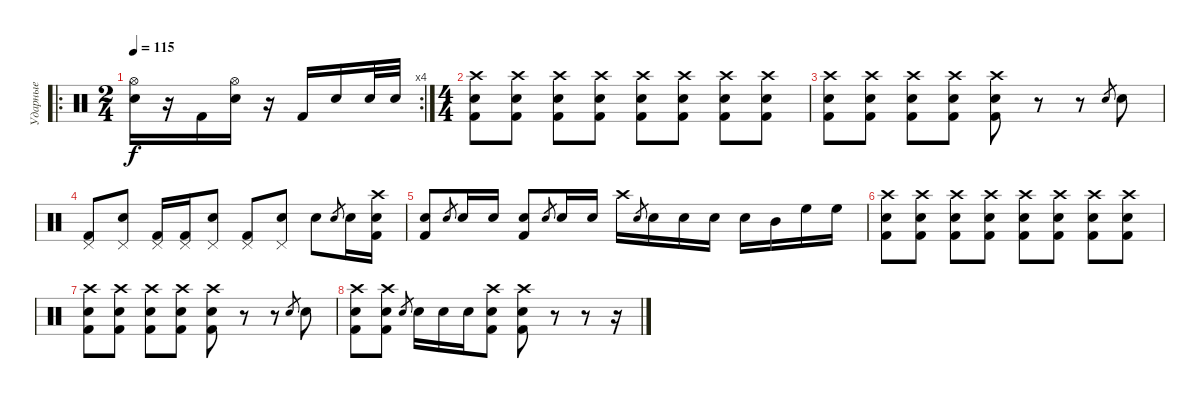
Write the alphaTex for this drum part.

\track ("Ударные" "Ударные") {instrument percussion}
\staff
\articulation defaults
\ro
\rc 4
\ts (2 4)
\tempo 115
\clef neutral
\ks c
("Hi-Hat (open)" "Electric Snare (hit)").16{dy f} r.16 "Kick (hit) 2".16 ("Hi-Hat (open)" "Electric Snare (hit)").16 r.16 "Kick (hit) 2".16 "Electric Snare (hit)".16 "Electric Snare (hit)".32 "Electric Snare (hit)".32 |
\ts (4 4)
("Electric Snare (hit)" "Crash high (hit)" "Kick (hit) 2").8 ("Electric Snare (hit)" "Crash high (hit)" "Kick (hit) 2").8 ("Electric Snare (hit)" "Crash high (hit)" "Kick (hit) 2").8 ("Electric Snare (hit)" "Crash high (hit)" "Kick (hit) 2").8 ("Electric Snare (hit)" "Crash high (hit)" "Kick (hit) 2").8 ("Electric Snare (hit)" "Crash high (hit)" "Kick (hit) 2").8 ("Electric Snare (hit)" "Crash high (hit)" "Kick (hit) 2").8 ("Electric Snare (hit)" "Crash high (hit)" "Kick (hit) 2").8 |
("Electric Snare (hit)" "Crash high (hit)" "Kick (hit) 2").8 ("Electric Snare (hit)" "Crash high (hit)" "Kick (hit) 2").8 ("Electric Snare (hit)" "Crash high (hit)" "Kick (hit) 2").8 ("Electric Snare (hit)" "Crash high (hit)" "Kick (hit) 2").8 ("Electric Snare (hit)" "Crash high (hit)" "Kick (hit) 2").8 r.8 r.8 "Electric Snare (hit)".8{gr} "Electric Snare (hit)".8 |
("Pedal Hi-Hat (hit)" "Kick (hit) 2").8 ("Pedal Hi-Hat (hit)" "Electric Snare (hit)").8 ("Pedal Hi-Hat (hit)" "Kick (hit) 2").16 ("Pedal Hi-Hat (hit)" "Kick (hit) 2").16 ("Pedal Hi-Hat (hit)" "Electric Snare (hit)").8 ("Pedal Hi-Hat (hit)" "Kick (hit) 2").8 ("Pedal Hi-Hat (hit)" "Electric Snare (hit)").8 "Electric Snare (hit)".8 "Electric Snare (hit)".8{gr} "Electric Snare (hit)".16 ("Crash high (hit)" "Electric Snare (hit)" "Kick (hit) 2").16 |
("Electric Snare (hit)" "Kick (hit) 2").8 "Electric Snare (hit)".8{gr} "Electric Snare (hit)".16 "Electric Snare (hit)".16 ("Electric Snare (hit)" "Kick (hit) 2").8 "Electric Snare (hit)".8{gr} "Electric Snare (hit)".16 "Electric Snare (hit)".16 "Crash high (hit)".16 "Electric Snare (hit)".8{gr} "Electric Snare (hit)".16 "Electric Snare (hit)".16 "Electric Snare (hit)".16 "Electric Snare (hit)".16 "Mid Tom (hit)".16 "High Floor Tom (hit)".16 "High Floor Tom (hit)".16 |
("Electric Snare (hit)" "Crash high (hit)" "Kick (hit) 2").8 ("Electric Snare (hit)" "Crash high (hit)" "Kick (hit) 2").8 ("Electric Snare (hit)" "Crash high (hit)" "Kick (hit) 2").8 ("Electric Snare (hit)" "Crash high (hit)" "Kick (hit) 2").8 ("Electric Snare (hit)" "Crash high (hit)" "Kick (hit) 2").8 ("Electric Snare (hit)" "Crash high (hit)" "Kick (hit) 2").8 ("Electric Snare (hit)" "Crash high (hit)" "Kick (hit) 2").8 ("Electric Snare (hit)" "Crash high (hit)" "Kick (hit) 2").8 |
("Electric Snare (hit)" "Crash high (hit)" "Kick (hit) 2").8 ("Electric Snare (hit)" "Crash high (hit)" "Kick (hit) 2").8 ("Electric Snare (hit)" "Crash high (hit)" "Kick (hit) 2").8 ("Electric Snare (hit)" "Crash high (hit)" "Kick (hit) 2").8 ("Electric Snare (hit)" "Crash high (hit)" "Kick (hit) 2").8 r.8 r.8 "Electric Snare (hit)".8{gr} "Electric Snare (hit)".8 |
("Electric Snare (hit)" "Kick (hit) 2" "Crash high (hit)").8 ("Electric Snare (hit)" "Kick (hit) 2" "Crash high (hit)").8 "Electric Snare (hit)".8{gr} "Electric Snare (hit)".16 "Electric Snare (hit)".16 "Electric Snare (hit)".16 ("Electric Snare (hit)" "Kick (hit) 2" "Crash high (hit)").8 ("Electric Snare (hit)" "Kick (hit) 2" "Crash high (hit)").8 r.8 r.8 r.16
